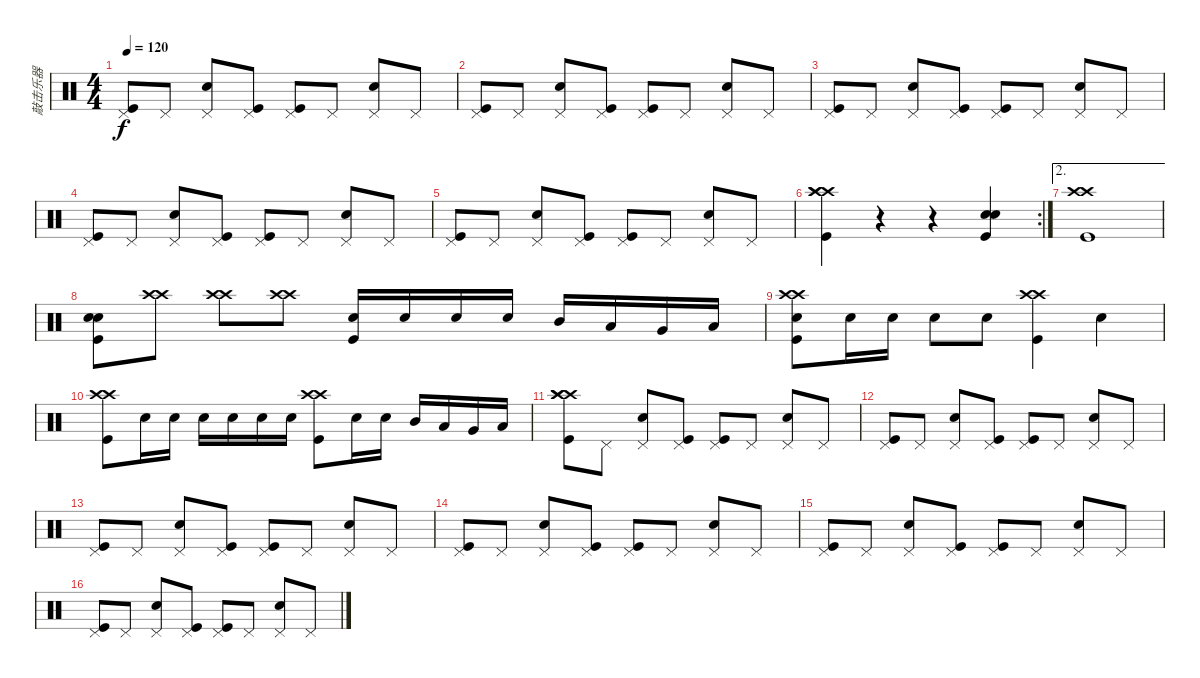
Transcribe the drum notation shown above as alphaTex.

\track ("敲击乐器" "敲击乐器") {instrument percussion}
\staff {score}
\articulation defaults
\ts (4 4)
\tempo 120
\clef neutral
\ks c
("Pedal Hi-Hat (hit)" "Kick (hit)").8{dy f} "Pedal Hi-Hat (hit)".8 ("Pedal Hi-Hat (hit)" "Metronome (bell)").8 ("Pedal Hi-Hat (hit)" "Kick (hit)").8 ("Pedal Hi-Hat (hit)" "Kick (hit)").8 "Pedal Hi-Hat (hit)".8 ("Pedal Hi-Hat (hit)" "Metronome (bell)").8 "Pedal Hi-Hat (hit)".8 |
("Pedal Hi-Hat (hit)" "Kick (hit)").8 "Pedal Hi-Hat (hit)".8 ("Pedal Hi-Hat (hit)" "Metronome (bell)").8 ("Pedal Hi-Hat (hit)" "Kick (hit)").8 ("Pedal Hi-Hat (hit)" "Kick (hit)").8 "Pedal Hi-Hat (hit)".8 ("Pedal Hi-Hat (hit)" "Metronome (bell)").8 "Pedal Hi-Hat (hit)".8 |
("Pedal Hi-Hat (hit)" "Kick (hit)").8 "Pedal Hi-Hat (hit)".8 ("Pedal Hi-Hat (hit)" "Metronome (bell)").8 ("Pedal Hi-Hat (hit)" "Kick (hit)").8 ("Pedal Hi-Hat (hit)" "Kick (hit)").8 "Pedal Hi-Hat (hit)".8 ("Pedal Hi-Hat (hit)" "Metronome (bell)").8 "Pedal Hi-Hat (hit)".8 |
("Pedal Hi-Hat (hit)" "Kick (hit)").8 "Pedal Hi-Hat (hit)".8 ("Pedal Hi-Hat (hit)" "Metronome (bell)").8 ("Pedal Hi-Hat (hit)" "Kick (hit)").8 ("Pedal Hi-Hat (hit)" "Kick (hit)").8 "Pedal Hi-Hat (hit)".8 ("Pedal Hi-Hat (hit)" "Metronome (bell)").8 "Pedal Hi-Hat (hit)".8 |
("Pedal Hi-Hat (hit)" "Kick (hit)").8 "Pedal Hi-Hat (hit)".8 ("Pedal Hi-Hat (hit)" "Metronome (bell)").8 ("Pedal Hi-Hat (hit)" "Kick (hit)").8 ("Pedal Hi-Hat (hit)" "Kick (hit)").8 "Pedal Hi-Hat (hit)".8 ("Pedal Hi-Hat (hit)" "Metronome (bell)").8 "Pedal Hi-Hat (hit)".8 |
\rc 2
("Crash high (hit)" "Crash high (hit)" "Crash high (hit)" "Kick (hit)").4 r.4 r.4 ("Metronome (bell)" "Metronome (bell)" "Kick (hit)").4 |
\ae 2
("Crash high (hit)" "Crash high (hit)" "Kick (hit)").1 |
("Metronome (bell)" "Metronome (bell)" "Kick (hit)").8 ("Crash high (hit)" "Crash high (hit)").8 ("Crash high (hit)" "Crash high (hit)").8 ("Crash high (hit)" "Crash high (hit)").8 ("Metronome (bell)" "Kick (hit)").16 "Metronome (bell)".16 "Metronome (bell)".16 "Metronome (bell)".16 "Mid Tom (hit)".16 "Low Tom (hit)".16 "Very Low Tom (hit)".16 "Low Floor Tom (hit)".16 |
("Crash high (hit)" "Crash high (hit)" "Metronome (bell)" "Kick (hit)").8 "Metronome (bell)".16 "Metronome (bell)".16 "Metronome (bell)".8 "Metronome (bell)".8 ("Crash high (hit)" "Crash high (hit)" "Kick (hit)").4 "Metronome (bell)".4 |
("Crash high (hit)" "Crash high (hit)" "Kick (hit)").8 "Metronome (bell)".16 "Metronome (bell)".16 "Metronome (bell)".16 "Metronome (bell)".16 "Metronome (bell)".16 "Metronome (bell)".16 ("Crash high (hit)" "Crash high (hit)" "Kick (hit)").8 "Metronome (bell)".16 "Metronome (bell)".16 "Mid Tom (hit)".16 "Low Tom (hit)".16 "Very Low Tom (hit)".16 "Low Floor Tom (hit)".16 |
("Crash high (hit)" "Crash high (hit)" "Crash high (hit)" "Kick (hit)").8 "Pedal Hi-Hat (hit)".8 ("Pedal Hi-Hat (hit)" "Metronome (bell)").8 ("Pedal Hi-Hat (hit)" "Kick (hit)").8 ("Pedal Hi-Hat (hit)" "Kick (hit)").8 "Pedal Hi-Hat (hit)".8 ("Pedal Hi-Hat (hit)" "Metronome (bell)").8 "Pedal Hi-Hat (hit)".8 |
("Pedal Hi-Hat (hit)" "Kick (hit)").8 "Pedal Hi-Hat (hit)".8 ("Pedal Hi-Hat (hit)" "Metronome (bell)").8 ("Pedal Hi-Hat (hit)" "Kick (hit)").8 ("Pedal Hi-Hat (hit)" "Kick (hit)").8 "Pedal Hi-Hat (hit)".8 ("Pedal Hi-Hat (hit)" "Metronome (bell)").8 "Pedal Hi-Hat (hit)".8 |
("Pedal Hi-Hat (hit)" "Kick (hit)").8 "Pedal Hi-Hat (hit)".8 ("Pedal Hi-Hat (hit)" "Metronome (bell)").8 ("Pedal Hi-Hat (hit)" "Kick (hit)").8 ("Pedal Hi-Hat (hit)" "Kick (hit)").8 "Pedal Hi-Hat (hit)".8 ("Pedal Hi-Hat (hit)" "Metronome (bell)").8 "Pedal Hi-Hat (hit)".8 |
("Pedal Hi-Hat (hit)" "Kick (hit)").8 "Pedal Hi-Hat (hit)".8 ("Pedal Hi-Hat (hit)" "Metronome (bell)").8 ("Pedal Hi-Hat (hit)" "Kick (hit)").8 ("Pedal Hi-Hat (hit)" "Kick (hit)").8 "Pedal Hi-Hat (hit)".8 ("Pedal Hi-Hat (hit)" "Metronome (bell)").8 "Pedal Hi-Hat (hit)".8 |
("Pedal Hi-Hat (hit)" "Kick (hit)").8 "Pedal Hi-Hat (hit)".8 ("Pedal Hi-Hat (hit)" "Metronome (bell)").8 ("Pedal Hi-Hat (hit)" "Kick (hit)").8 ("Pedal Hi-Hat (hit)" "Kick (hit)").8 "Pedal Hi-Hat (hit)".8 ("Pedal Hi-Hat (hit)" "Metronome (bell)").8 "Pedal Hi-Hat (hit)".8 |
("Pedal Hi-Hat (hit)" "Kick (hit)").8 "Pedal Hi-Hat (hit)".8 ("Pedal Hi-Hat (hit)" "Metronome (bell)").8 ("Pedal Hi-Hat (hit)" "Kick (hit)").8 ("Pedal Hi-Hat (hit)" "Kick (hit)").8 "Pedal Hi-Hat (hit)".8 ("Pedal Hi-Hat (hit)" "Metronome (bell)").8 "Pedal Hi-Hat (hit)".8
